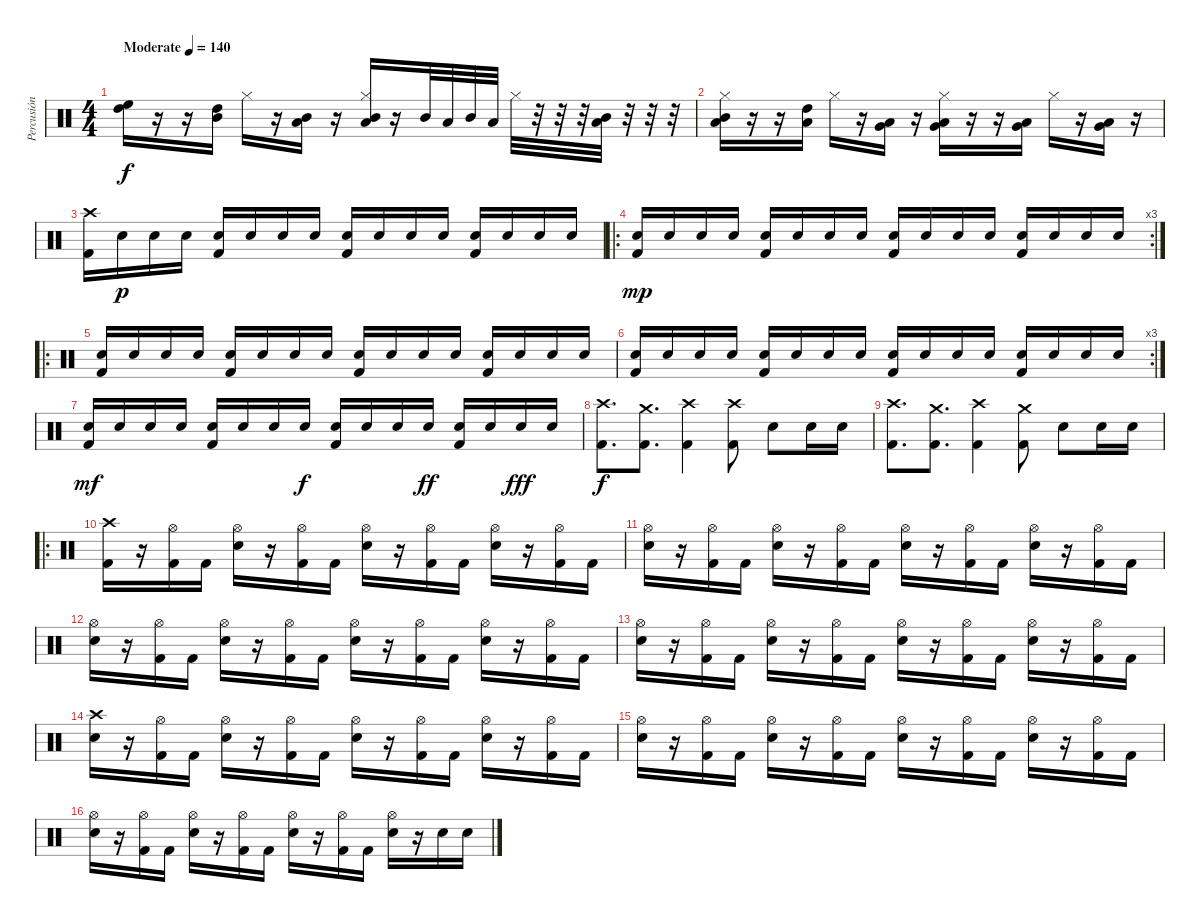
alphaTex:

\track ("Percusión" "Percusión") {instrument percussion}
\staff {score}
\articulation defaults
\ts (4 4)
\tempo (140 "Moderate")
\clef neutral
\ks c
("High Floor Tom (hit)" "High Tom (hit)").16{dy f} r.16 r.16 ("Mid Tom (hit)" "High Tom (hit)").16 "Hi-Hat (closed)".16 r.16 ("Mid Tom (hit)" "Low Tom (hit)").16 r.16 ("Low Tom (hit)" "Mid Tom (hit)" "Hi-Hat (closed)").16 r.16 "Mid Tom (hit)".32 "Low Tom (hit)".32 "Mid Tom (hit)".32 "Low Tom (hit)".32 "Hi-Hat (closed)".32 r.32 r.32 r.32 ("Low Tom (hit)" "Mid Tom (hit)").32 r.32 r.32 r.32 |
("Low Tom (hit)" "Mid Tom (hit)" "Hi-Hat (closed)").16 r.16 r.16 ("High Tom (hit)" "Low Tom (hit)").16 "Hi-Hat (closed)".16 r.16 ("Very Low Tom (hit)" "Low Tom (hit)").16 r.16 ("Very Low Tom (hit)" "Low Tom (hit)" "Hi-Hat (closed)").16 r.16 r.16 ("Very Low Tom (hit)" "Low Tom (hit)").16 "Hi-Hat (closed)".16 r.16 ("Low Tom (hit)" "Very Low Tom (hit)").16 r.16 |
("Crash high (hit)" "Kick (hit) 2").16 "Electric Snare (hit)".16{dy p} "Electric Snare (hit)".16 "Electric Snare (hit)".16 ("Electric Snare (hit)" "Kick (hit) 2").16 "Electric Snare (hit)".16 "Electric Snare (hit)".16 "Electric Snare (hit)".16 ("Electric Snare (hit)" "Kick (hit) 2").16 "Electric Snare (hit)".16 "Electric Snare (hit)".16 "Electric Snare (hit)".16 ("Electric Snare (hit)" "Kick (hit) 2").16 "Electric Snare (hit)".16 "Electric Snare (hit)".16 "Electric Snare (hit)".16 |
\ro
\rc 3
("Electric Snare (hit)" "Kick (hit) 2").16{dy mp} "Electric Snare (hit)".16 "Electric Snare (hit)".16 "Electric Snare (hit)".16 ("Electric Snare (hit)" "Kick (hit) 2").16 "Electric Snare (hit)".16 "Electric Snare (hit)".16 "Electric Snare (hit)".16 ("Electric Snare (hit)" "Kick (hit) 2").16 "Electric Snare (hit)".16 "Electric Snare (hit)".16 "Electric Snare (hit)".16 ("Electric Snare (hit)" "Kick (hit) 2").16 "Electric Snare (hit)".16 "Electric Snare (hit)".16 "Electric Snare (hit)".16 |
\ro
("Electric Snare (hit)" "Kick (hit) 2").16 "Electric Snare (hit)".16 "Electric Snare (hit)".16 "Electric Snare (hit)".16 ("Electric Snare (hit)" "Kick (hit) 2").16 "Electric Snare (hit)".16 "Electric Snare (hit)".16 "Electric Snare (hit)".16 ("Electric Snare (hit)" "Kick (hit) 2").16 "Electric Snare (hit)".16 "Electric Snare (hit)".16 "Electric Snare (hit)".16 ("Electric Snare (hit)" "Kick (hit) 2").16 "Electric Snare (hit)".16 "Electric Snare (hit)".16 "Electric Snare (hit)".16 |
\rc 3
("Electric Snare (hit)" "Kick (hit) 2").16 "Electric Snare (hit)".16 "Electric Snare (hit)".16 "Electric Snare (hit)".16 ("Electric Snare (hit)" "Kick (hit) 2").16 "Electric Snare (hit)".16 "Electric Snare (hit)".16 "Electric Snare (hit)".16 ("Electric Snare (hit)" "Kick (hit) 2").16 "Electric Snare (hit)".16 "Electric Snare (hit)".16 "Electric Snare (hit)".16 ("Electric Snare (hit)" "Kick (hit) 2").16 "Electric Snare (hit)".16 "Electric Snare (hit)".16 "Electric Snare (hit)".16 |
("Electric Snare (hit)" "Kick (hit) 2").16{dy mf} "Electric Snare (hit)".16 "Electric Snare (hit)".16 "Electric Snare (hit)".16 ("Electric Snare (hit)" "Kick (hit) 2").16 "Electric Snare (hit)".16 "Electric Snare (hit)".16 "Electric Snare (hit)".16{dy f} ("Electric Snare (hit)" "Kick (hit) 2").16 "Electric Snare (hit)".16 "Electric Snare (hit)".16 "Electric Snare (hit)".16{dy ff} ("Electric Snare (hit)" "Kick (hit) 2").16 "Electric Snare (hit)".16 "Electric Snare (hit)".16{dy fff} "Electric Snare (hit)".16 |
("Crash high (hit)" "Kick (hit) 2").8{d dy f} ("Crash medium (hit)" "Kick (hit) 2").8{d} ("Crash high (hit)" "Kick (hit) 2").4 ("Crash high (hit)" "Kick (hit) 2").8 "Electric Snare (hit)".8 "Electric Snare (hit)".16 "Electric Snare (hit)".16 |
("Crash high (hit)" "Kick (hit) 2").8{d} ("Crash medium (hit)" "Kick (hit) 2").8{d} ("Crash high (hit)" "Kick (hit) 2").4 ("Crash medium (hit)" "Kick (hit) 2").8 "Electric Snare (hit)".8 "Electric Snare (hit)".16 "Electric Snare (hit)".16 |
\ro
("Crash high (hit)" "Kick (hit) 2").16 r.16 ("Hi-Hat (open)" "Kick (hit) 2").16 "Kick (hit) 2".16 ("Hi-Hat (open)" "Electric Snare (hit)").16 r.16 ("Hi-Hat (open)" "Kick (hit) 2").16 "Kick (hit) 2".16 ("Hi-Hat (open)" "Electric Snare (hit)").16 r.16 ("Hi-Hat (open)" "Kick (hit) 2").16 "Kick (hit) 2".16 ("Hi-Hat (open)" "Electric Snare (hit)").16 r.16 ("Hi-Hat (open)" "Kick (hit) 2").16 "Kick (hit) 2".16 |
("Hi-Hat (open)" "Electric Snare (hit)").16 r.16 ("Hi-Hat (open)" "Kick (hit) 2").16 "Kick (hit) 2".16 ("Hi-Hat (open)" "Electric Snare (hit)").16 r.16 ("Hi-Hat (open)" "Kick (hit) 2").16 "Kick (hit) 2".16 ("Hi-Hat (open)" "Electric Snare (hit)").16 r.16 ("Hi-Hat (open)" "Kick (hit) 2").16 "Kick (hit) 2".16 ("Hi-Hat (open)" "Electric Snare (hit)").16 r.16 ("Hi-Hat (open)" "Kick (hit) 2").16 "Kick (hit) 2".16 |
("Hi-Hat (open)" "Electric Snare (hit)").16 r.16 ("Hi-Hat (open)" "Kick (hit) 2").16 "Kick (hit) 2".16 ("Hi-Hat (open)" "Electric Snare (hit)").16 r.16 ("Hi-Hat (open)" "Kick (hit) 2").16 "Kick (hit) 2".16 ("Hi-Hat (open)" "Electric Snare (hit)").16 r.16 ("Hi-Hat (open)" "Kick (hit) 2").16 "Kick (hit) 2".16 ("Hi-Hat (open)" "Electric Snare (hit)").16 r.16 ("Hi-Hat (open)" "Kick (hit) 2").16 "Kick (hit) 2".16 |
("Hi-Hat (open)" "Electric Snare (hit)").16 r.16 ("Hi-Hat (open)" "Kick (hit) 2").16 "Kick (hit) 2".16 ("Hi-Hat (open)" "Electric Snare (hit)").16 r.16 ("Hi-Hat (open)" "Kick (hit) 2").16 "Kick (hit) 2".16 ("Hi-Hat (open)" "Electric Snare (hit)").16 r.16 ("Hi-Hat (open)" "Kick (hit) 2").16 "Kick (hit) 2".16 ("Hi-Hat (open)" "Electric Snare (hit)").16 r.16 ("Hi-Hat (open)" "Kick (hit) 2").16 "Kick (hit) 2".16 |
("Crash high (hit)" "Electric Snare (hit)").16 r.16 ("Hi-Hat (open)" "Kick (hit) 2").16 "Kick (hit) 2".16 ("Hi-Hat (open)" "Electric Snare (hit)").16 r.16 ("Hi-Hat (open)" "Kick (hit) 2").16 "Kick (hit) 2".16 ("Hi-Hat (open)" "Electric Snare (hit)").16 r.16 ("Hi-Hat (open)" "Kick (hit) 2").16 "Kick (hit) 2".16 ("Hi-Hat (open)" "Electric Snare (hit)").16 r.16 ("Hi-Hat (open)" "Kick (hit) 2").16 "Kick (hit) 2".16 |
("Hi-Hat (open)" "Electric Snare (hit)").16 r.16 ("Hi-Hat (open)" "Kick (hit) 2").16 "Kick (hit) 2".16 ("Hi-Hat (open)" "Electric Snare (hit)").16 r.16 ("Hi-Hat (open)" "Kick (hit) 2").16 "Kick (hit) 2".16 ("Hi-Hat (open)" "Electric Snare (hit)").16 r.16 ("Hi-Hat (open)" "Kick (hit) 2").16 "Kick (hit) 2".16 ("Hi-Hat (open)" "Electric Snare (hit)").16 r.16 ("Hi-Hat (open)" "Kick (hit) 2").16 "Kick (hit) 2".16 |
("Hi-Hat (open)" "Electric Snare (hit)").16 r.16 ("Hi-Hat (open)" "Kick (hit) 2").16 "Kick (hit) 2".16 ("Hi-Hat (open)" "Electric Snare (hit)").16 r.16 ("Hi-Hat (open)" "Kick (hit) 2").16 "Kick (hit) 2".16 ("Hi-Hat (open)" "Electric Snare (hit)").16 r.16 ("Hi-Hat (open)" "Kick (hit) 2").16 "Kick (hit) 2".16 ("Hi-Hat (open)" "Electric Snare (hit)").16 r.16 "Electric Snare (hit)".16 "Electric Snare (hit)".16
